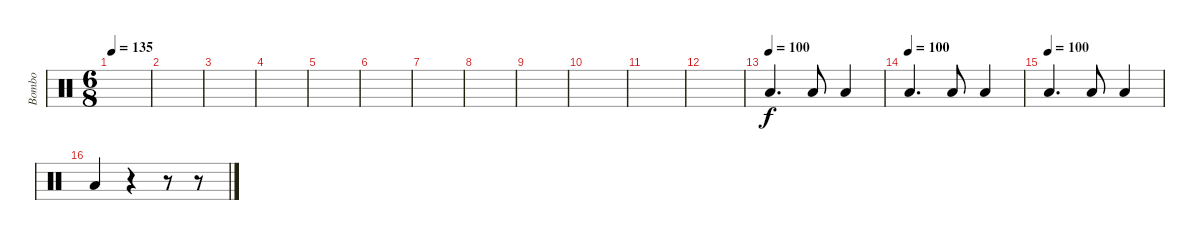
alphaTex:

\track ("Bombo" "Bombo") {instrument percussion}
\staff {score}
\articulation defaults
\ts (6 8)
\tempo 135
\clef neutral
\ks c
|
|
|
|
|
|
|
|
|
|
|
|
\tempo (100)
"Low Floor Tom (hit)".4{d} "Low Floor Tom (hit)".8 "Low Floor Tom (hit)".4 |
\tempo (100)
"Low Floor Tom (hit)".4{d} "Low Floor Tom (hit)".8 "Low Floor Tom (hit)".4 |
\tempo (100)
"Low Floor Tom (hit)".4{d} "Low Floor Tom (hit)".8 "Low Floor Tom (hit)".4 |
"Low Floor Tom (hit)".4 r.4 r.8 r.8
